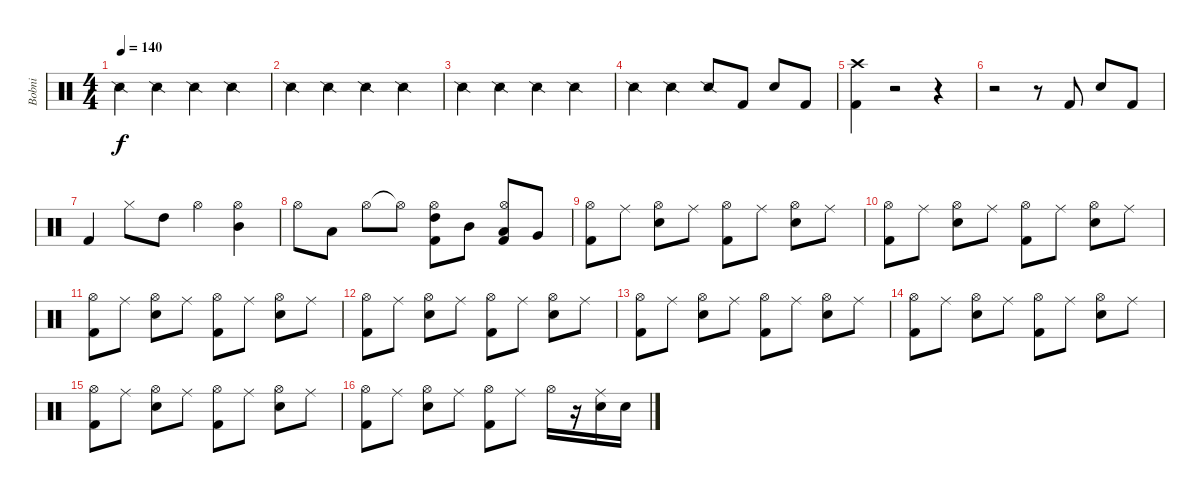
\track ("Bobni" "Bobni") {instrument percussion}
\staff {score}
\articulation defaults
\ts (4 4)
\tempo 140
\clef neutral
\ks c "Snare (side stick) 2".4{dy f} "Snare (side stick) 2".4 "Snare (side stick) 2".4 "Snare (side stick) 2".4
|
"Snare (side stick) 2".4 "Snare (side stick) 2".4 "Snare (side stick) 2".4 "Snare (side stick) 2".4 |
"Snare (side stick) 2".4 "Snare (side stick) 2".4 "Snare (side stick) 2".4 "Snare (side stick) 2".4 |
"Snare (side stick) 2".4 "Snare (side stick) 2".4 "Snare (side stick) 2".8 "Kick (hit) 2".8 "Snare (hit) 2".8 "Kick (hit) 2".8 |
("Crash high (hit)" "Kick (hit) 2").4 r.2 r.4 |
r.2 r.8 "Kick (hit) 2".8 "Snare (hit) 2".8 "Kick (hit) 2".8 |
"Kick (hit) 2".4 "Hi-Hat (closed)".8 "High Tom (hit)".8 "Hi-Hat (open)".4 ("Hi-Hat (open)" "Mid Tom (hit)").4 |
"Hi-Hat (open)".8 "Low Tom (hit)".8 "Hi-Hat (open)".8 "Hi-Hat (open)"{t}.8 ("Hi-Hat (open)" "High Tom (hit)" "Kick (hit) 2").8 "Mid Tom (hit)".8 ("Hi-Hat (open)" "Low Tom (hit)" "Kick (hit) 2").8 "Very Low Tom (hit)".8 |
("Hi-Hat (open)" "Kick (hit) 2").8 "Ride (middle)".8 ("Hi-Hat (open)" "Snare (hit) 2").8 "Ride (middle)".8 ("Hi-Hat (open)" "Kick (hit) 2").8 "Ride (middle)".8 ("Hi-Hat (open)" "Snare (hit) 2").8 "Ride (middle)".8 |
("Hi-Hat (open)" "Kick (hit) 2").8 "Ride (middle)".8 ("Hi-Hat (open)" "Snare (hit) 2").8 "Ride (middle)".8 ("Hi-Hat (open)" "Kick (hit) 2").8 "Ride (middle)".8 ("Hi-Hat (open)" "Snare (hit) 2").8 "Ride (middle)".8 |
("Hi-Hat (open)" "Kick (hit) 2").8 "Ride (middle)".8 ("Hi-Hat (open)" "Snare (hit) 2").8 "Ride (middle)".8 ("Hi-Hat (open)" "Kick (hit) 2").8 "Ride (middle)".8 ("Hi-Hat (open)" "Snare (hit) 2").8 "Ride (middle)".8 |
("Hi-Hat (open)" "Kick (hit) 2").8 "Ride (middle)".8 ("Hi-Hat (open)" "Snare (hit) 2").8 "Ride (middle)".8 ("Hi-Hat (open)" "Kick (hit) 2").8 "Ride (middle)".8 ("Hi-Hat (open)" "Snare (hit) 2").8 "Ride (middle)".8 |
("Hi-Hat (open)" "Kick (hit) 2").8 "Ride (middle)".8 ("Hi-Hat (open)" "Snare (hit) 2").8 "Ride (middle)".8 ("Hi-Hat (open)" "Kick (hit) 2").8 "Ride (middle)".8 ("Hi-Hat (open)" "Snare (hit) 2").8 "Ride (middle)".8 |
("Hi-Hat (open)" "Kick (hit) 2").8 "Ride (middle)".8 ("Hi-Hat (open)" "Snare (hit) 2").8 "Ride (middle)".8 ("Hi-Hat (open)" "Kick (hit) 2").8 "Ride (middle)".8 ("Hi-Hat (open)" "Snare (hit) 2").8 "Ride (middle)".8 |
("Hi-Hat (open)" "Kick (hit) 2").8 "Ride (middle)".8 ("Hi-Hat (open)" "Snare (hit) 2").8 "Ride (middle)".8 ("Hi-Hat (open)" "Kick (hit) 2").8 "Ride (middle)".8 ("Hi-Hat (open)" "Snare (hit) 2").8 "Ride (middle)".8 |
("Hi-Hat (open)" "Kick (hit) 2").8 "Ride (middle)".8 ("Hi-Hat (open)" "Snare (hit) 2").8 "Ride (middle)".8 ("Hi-Hat (open)" "Kick (hit) 2").8 "Ride (middle)".8 "Hi-Hat (open)".16 r.16 ("Ride (middle)" "Snare (hit) 2").16 "Snare (hit) 2".16
